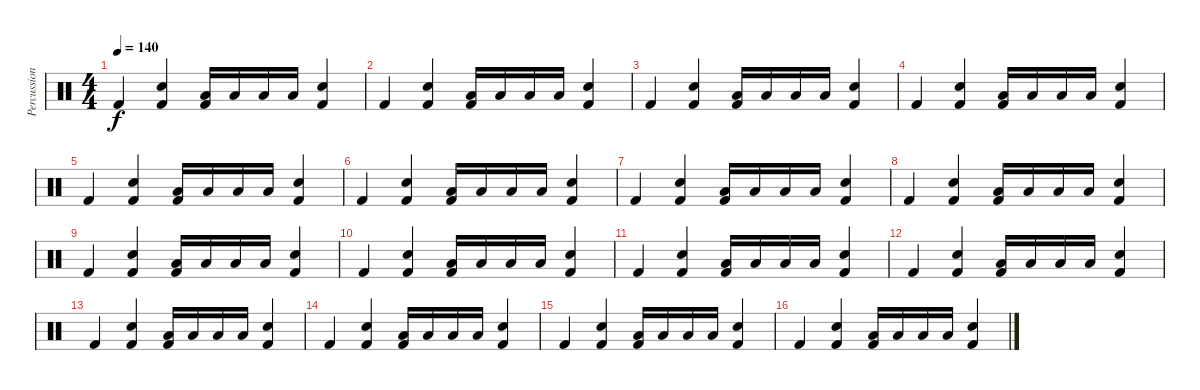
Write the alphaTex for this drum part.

\track ("Percussion" "Percussion") {instrument percussion}
\staff {score}
\articulation defaults
\ts (4 4)
\tempo 140
\clef neutral
\ks c "Kick (hit) 2".4{dy f}
("Snare (hit) 2" "Kick (hit) 2").4 ("Low Tom (hit)" "Kick (hit) 2").16 "Low Tom (hit)".16 "Low Tom (hit)".16 "Low Tom (hit)".16 ("Snare (hit) 2" "Kick (hit) 2").4 |
"Kick (hit) 2".4 ("Snare (hit) 2" "Kick (hit) 2").4 ("Low Tom (hit)" "Kick (hit) 2").16 "Low Tom (hit)".16 "Low Tom (hit)".16 "Low Tom (hit)".16 ("Snare (hit) 2" "Kick (hit) 2").4 |
"Kick (hit) 2".4 ("Snare (hit) 2" "Kick (hit) 2").4 ("Low Tom (hit)" "Kick (hit) 2").16 "Low Tom (hit)".16 "Low Tom (hit)".16 "Low Tom (hit)".16 ("Snare (hit) 2" "Kick (hit) 2").4 |
"Kick (hit) 2".4 ("Snare (hit) 2" "Kick (hit) 2").4 ("Low Tom (hit)" "Kick (hit) 2").16 "Low Tom (hit)".16 "Low Tom (hit)".16 "Low Tom (hit)".16 ("Snare (hit) 2" "Kick (hit) 2").4 |
"Kick (hit) 2".4 ("Snare (hit) 2" "Kick (hit) 2").4 ("Low Tom (hit)" "Kick (hit) 2").16 "Low Tom (hit)".16 "Low Tom (hit)".16 "Low Tom (hit)".16 ("Snare (hit) 2" "Kick (hit) 2").4 |
"Kick (hit) 2".4 ("Snare (hit) 2" "Kick (hit) 2").4 ("Low Tom (hit)" "Kick (hit) 2").16 "Low Tom (hit)".16 "Low Tom (hit)".16 "Low Tom (hit)".16 ("Snare (hit) 2" "Kick (hit) 2").4 |
"Kick (hit) 2".4 ("Snare (hit) 2" "Kick (hit) 2").4 ("Low Tom (hit)" "Kick (hit) 2").16 "Low Tom (hit)".16 "Low Tom (hit)".16 "Low Tom (hit)".16 ("Snare (hit) 2" "Kick (hit) 2").4 |
"Kick (hit) 2".4 ("Snare (hit) 2" "Kick (hit) 2").4 ("Low Tom (hit)" "Kick (hit) 2").16 "Low Tom (hit)".16 "Low Tom (hit)".16 "Low Tom (hit)".16 ("Snare (hit) 2" "Kick (hit) 2").4 |
"Kick (hit) 2".4 ("Snare (hit) 2" "Kick (hit) 2").4 ("Low Tom (hit)" "Kick (hit) 2").16 "Low Tom (hit)".16 "Low Tom (hit)".16 "Low Tom (hit)".16 ("Snare (hit) 2" "Kick (hit) 2").4 |
"Kick (hit) 2".4 ("Snare (hit) 2" "Kick (hit) 2").4 ("Low Tom (hit)" "Kick (hit) 2").16 "Low Tom (hit)".16 "Low Tom (hit)".16 "Low Tom (hit)".16 ("Snare (hit) 2" "Kick (hit) 2").4 |
"Kick (hit) 2".4 ("Snare (hit) 2" "Kick (hit) 2").4 ("Low Tom (hit)" "Kick (hit) 2").16 "Low Tom (hit)".16 "Low Tom (hit)".16 "Low Tom (hit)".16 ("Snare (hit) 2" "Kick (hit) 2").4 |
"Kick (hit) 2".4 ("Snare (hit) 2" "Kick (hit) 2").4 ("Low Tom (hit)" "Kick (hit) 2").16 "Low Tom (hit)".16 "Low Tom (hit)".16 "Low Tom (hit)".16 ("Snare (hit) 2" "Kick (hit) 2").4 |
"Kick (hit) 2".4 ("Snare (hit) 2" "Kick (hit) 2").4 ("Low Tom (hit)" "Kick (hit) 2").16 "Low Tom (hit)".16 "Low Tom (hit)".16 "Low Tom (hit)".16 ("Snare (hit) 2" "Kick (hit) 2").4 |
"Kick (hit) 2".4 ("Snare (hit) 2" "Kick (hit) 2").4 ("Low Tom (hit)" "Kick (hit) 2").16 "Low Tom (hit)".16 "Low Tom (hit)".16 "Low Tom (hit)".16 ("Snare (hit) 2" "Kick (hit) 2").4 |
"Kick (hit) 2".4 ("Snare (hit) 2" "Kick (hit) 2").4 ("Low Tom (hit)" "Kick (hit) 2").16 "Low Tom (hit)".16 "Low Tom (hit)".16 "Low Tom (hit)".16 ("Snare (hit) 2" "Kick (hit) 2").4 |
"Kick (hit) 2".4 ("Snare (hit) 2" "Kick (hit) 2").4 ("Low Tom (hit)" "Kick (hit) 2").16 "Low Tom (hit)".16 "Low Tom (hit)".16 "Low Tom (hit)".16 ("Snare (hit) 2" "Kick (hit) 2").4
